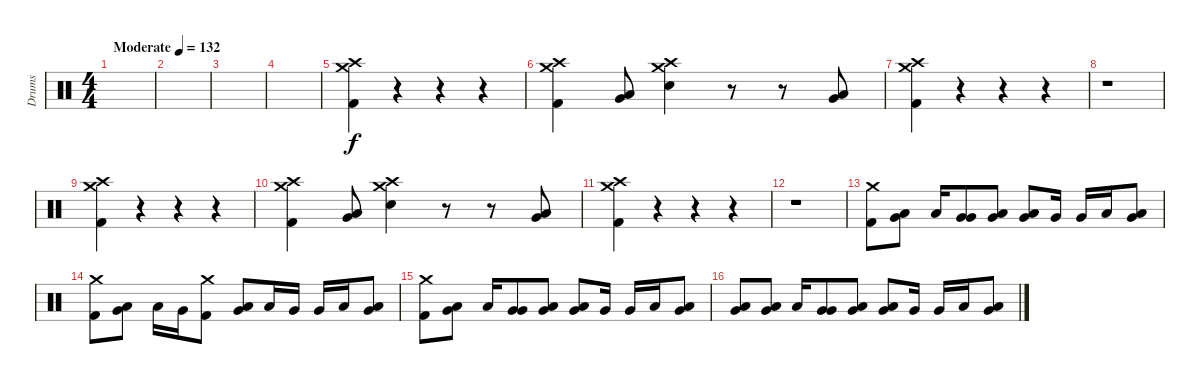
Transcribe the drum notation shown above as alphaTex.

\track ("Drums" "Drums") {instrument percussion}
\staff {score}
\articulation defaults
\ts (4 4)
\tempo (132 "Moderate")
\clef neutral
\ks c
|
|
|
|
("Crash medium (hit)" "Crash high (hit)" "Kick (hit) 2").4 r.4 r.4 r.4 |
("Crash medium (hit)" "Crash high (hit)" "Kick (hit) 2").4 ("Very Low Tom (hit)" "Low Floor Tom (hit)").8 ("Crash medium (hit)" "Crash high (hit)" "Snare (hit)").4 r.8 r.8 ("Very Low Tom (hit)" "Low Floor Tom (hit)").8 |
("Crash medium (hit)" "Crash high (hit)" "Kick (hit) 2").4 r.4 r.4 r.4 |
r.1 |
("Crash medium (hit)" "Crash high (hit)" "Kick (hit) 2").4 r.4 r.4 r.4 |
("Crash medium (hit)" "Crash high (hit)" "Kick (hit) 2").4 ("Very Low Tom (hit)" "Low Floor Tom (hit)").8 ("Crash medium (hit)" "Crash high (hit)" "Snare (hit)").4 r.8 r.8 ("Very Low Tom (hit)" "Low Floor Tom (hit)").8 |
("Crash medium (hit)" "Crash high (hit)" "Kick (hit) 2").4 r.4 r.4 r.4 |
r.1 |
("Crash medium (hit)" "Kick (hit) 2").8 ("Very Low Tom (hit)" "Low Floor Tom (hit)").8 "Low Floor Tom (hit)".16 ("Very Low Tom (hit)" "Very Low Tom (hit)").8 ("Very Low Tom (hit)" "Low Floor Tom (hit)").8 ("Very Low Tom (hit)" "Low Floor Tom (hit)").8 "Very Low Tom (hit)".16 "Very Low Tom (hit)".16 "Low Floor Tom (hit)".16 ("Very Low Tom (hit)" "Low Floor Tom (hit)").8 |
("Crash medium (hit)" "Kick (hit) 2").8 ("Very Low Tom (hit)" "Low Floor Tom (hit)").8 "Low Floor Tom (hit)".16 "Very Low Tom (hit)".16 ("Crash medium (hit)" "Kick (hit) 2").8 ("Very Low Tom (hit)" "Low Floor Tom (hit)").8 "Low Floor Tom (hit)".16 "Very Low Tom (hit)".16 "Very Low Tom (hit)".16 "Low Floor Tom (hit)".16 ("Very Low Tom (hit)" "Low Floor Tom (hit)").8 |
("Crash medium (hit)" "Kick (hit) 2").8 ("Very Low Tom (hit)" "Low Floor Tom (hit)").8 "Low Floor Tom (hit)".16 ("Very Low Tom (hit)" "Very Low Tom (hit)").8 ("Very Low Tom (hit)" "Low Floor Tom (hit)").8 ("Very Low Tom (hit)" "Low Floor Tom (hit)").8 "Very Low Tom (hit)".16 "Very Low Tom (hit)".16 "Low Floor Tom (hit)".16 ("Very Low Tom (hit)" "Low Floor Tom (hit)").8 |
("Very Low Tom (hit)" "Low Floor Tom (hit)").8 ("Very Low Tom (hit)" "Low Floor Tom (hit)").8 "Low Floor Tom (hit)".16 ("Very Low Tom (hit)" "Very Low Tom (hit)").8 ("Very Low Tom (hit)" "Low Floor Tom (hit)").8 ("Very Low Tom (hit)" "Low Floor Tom (hit)").8 "Very Low Tom (hit)".16 "Very Low Tom (hit)".16 "Low Floor Tom (hit)".16 ("Very Low Tom (hit)" "Low Floor Tom (hit)").8
